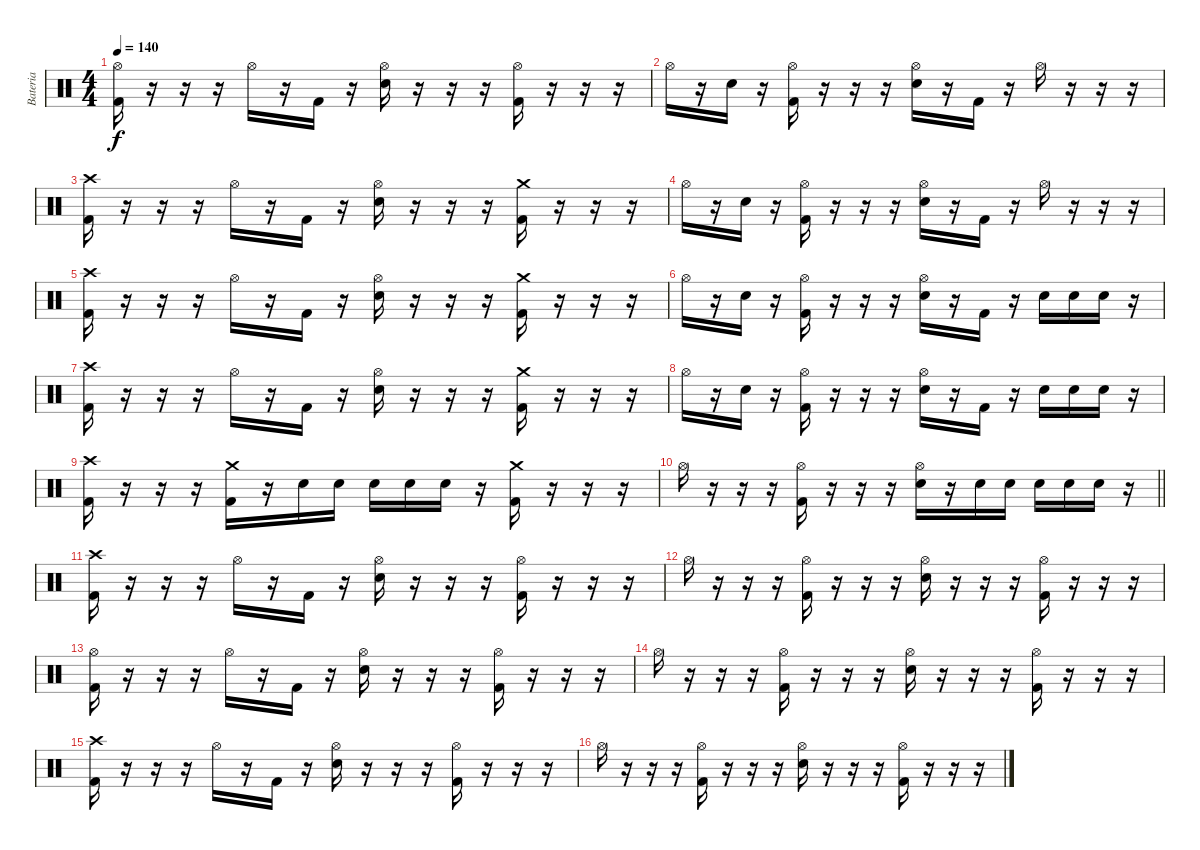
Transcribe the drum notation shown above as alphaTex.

\track ("Bateria" "Bateria") {instrument percussion}
\staff {score}
\articulation defaults
\ts (4 4)
\tempo 140
\clef neutral
\ks c
("Hi-Hat (open)" "Kick (hit) 2").16{dy f} r.16 r.16 r.16 "Hi-Hat (open)".16 r.16 "Kick (hit) 2".16 r.16 ("Hi-Hat (open)" "Snare (hit) 2").16 r.16 r.16 r.16 ("Hi-Hat (open)" "Kick (hit) 2").16 r.16 r.16 r.16 |
"Hi-Hat (open)".16 r.16 "Snare (hit) 2".16 r.16 ("Hi-Hat (open)" "Kick (hit) 2").16 r.16 r.16 r.16 ("Hi-Hat (open)" "Snare (hit) 2").16 r.16 "Kick (hit) 2".16 r.16 "Hi-Hat (open)".16 r.16 r.16 r.16 |
("Crash high (hit)" "Kick (hit) 2").16 r.16 r.16 r.16 "Hi-Hat (open)".16 r.16 "Kick (hit) 2".16 r.16 ("Hi-Hat (open)" "Snare (hit) 2").16 r.16 r.16 r.16 ("Crash medium (hit)" "Kick (hit) 2").16 r.16 r.16 r.16 |
"Hi-Hat (open)".16 r.16 "Snare (hit) 2".16 r.16 ("Hi-Hat (open)" "Kick (hit) 2").16 r.16 r.16 r.16 ("Hi-Hat (open)" "Snare (hit) 2").16 r.16 "Kick (hit) 2".16 r.16 "Hi-Hat (open)".16 r.16 r.16 r.16 |
("Crash high (hit)" "Kick (hit) 2").16 r.16 r.16 r.16 "Hi-Hat (open)".16 r.16 "Kick (hit) 2".16 r.16 ("Hi-Hat (open)" "Snare (hit) 2").16 r.16 r.16 r.16 ("Crash medium (hit)" "Kick (hit) 2").16 r.16 r.16 r.16 |
"Hi-Hat (open)".16 r.16 "Snare (hit) 2".16 r.16 ("Hi-Hat (open)" "Kick (hit) 2").16 r.16 r.16 r.16 ("Hi-Hat (open)" "Snare (hit) 2").16 r.16 "Kick (hit) 2".16 r.16 "Snare (hit) 2".16 "Snare (hit) 2".16 "Snare (hit) 2".16 r.16 |
("Crash high (hit)" "Kick (hit) 2").16 r.16 r.16 r.16 "Hi-Hat (open)".16 r.16 "Kick (hit) 2".16 r.16 ("Hi-Hat (open)" "Snare (hit) 2").16 r.16 r.16 r.16 ("Crash medium (hit)" "Kick (hit) 2").16 r.16 r.16 r.16 |
"Hi-Hat (open)".16 r.16 "Snare (hit) 2".16 r.16 ("Hi-Hat (open)" "Kick (hit) 2").16 r.16 r.16 r.16 ("Hi-Hat (open)" "Snare (hit) 2").16 r.16 "Kick (hit) 2".16 r.16 "Snare (hit) 2".16 "Snare (hit) 2".16 "Snare (hit) 2".16 r.16 |
("Crash high (hit)" "Kick (hit) 2").16 r.16 r.16 r.16 ("Crash medium (hit)" "Kick (hit) 2").16 r.16 "Snare (hit) 2".16 "Snare (hit) 2".16 "Snare (hit) 2".16 "Snare (hit) 2".16 "Snare (hit) 2".16 r.16 ("Crash medium (hit)" "Kick (hit) 2").16 r.16 r.16 r.16 |
\barLineRight lightlight "Hi-Hat (open)".16
r.16 r.16 r.16 ("Hi-Hat (open)" "Kick (hit) 2").16 r.16 r.16 r.16 ("Hi-Hat (open)" "Snare (hit) 2").16 r.16 "Snare (hit) 2".16 "Snare (hit) 2".16 "Snare (hit) 2".16 "Snare (hit) 2".16 "Snare (hit) 2".16 r.16 |
("Crash high (hit)" "Kick (hit) 2").16 r.16 r.16 r.16 "Hi-Hat (open)".16 r.16 "Kick (hit) 2".16 r.16 ("Hi-Hat (open)" "Snare (hit) 2").16 r.16 r.16 r.16 ("Hi-Hat (open)" "Kick (hit) 2").16 r.16 r.16 r.16 |
"Hi-Hat (open)".16 r.16 r.16 r.16 ("Hi-Hat (open)" "Kick (hit) 2").16 r.16 r.16 r.16 ("Hi-Hat (open)" "Snare (hit) 2").16 r.16 r.16 r.16 ("Hi-Hat (open)" "Kick (hit) 2").16 r.16 r.16 r.16 |
("Hi-Hat (open)" "Kick (hit) 2").16 r.16 r.16 r.16 "Hi-Hat (open)".16 r.16 "Kick (hit) 2".16 r.16 ("Hi-Hat (open)" "Snare (hit) 2").16 r.16 r.16 r.16 ("Hi-Hat (open)" "Kick (hit) 2").16 r.16 r.16 r.16 |
"Hi-Hat (open)".16 r.16 r.16 r.16 ("Hi-Hat (open)" "Kick (hit) 2").16 r.16 r.16 r.16 ("Hi-Hat (open)" "Snare (hit) 2").16 r.16 r.16 r.16 ("Hi-Hat (open)" "Kick (hit) 2").16 r.16 r.16 r.16 |
("Crash high (hit)" "Kick (hit) 2").16 r.16 r.16 r.16 "Hi-Hat (open)".16 r.16 "Kick (hit) 2".16 r.16 ("Hi-Hat (open)" "Snare (hit) 2").16 r.16 r.16 r.16 ("Hi-Hat (open)" "Kick (hit) 2").16 r.16 r.16 r.16 |
"Hi-Hat (open)".16 r.16 r.16 r.16 ("Hi-Hat (open)" "Kick (hit) 2").16 r.16 r.16 r.16 ("Hi-Hat (open)" "Snare (hit) 2").16 r.16 r.16 r.16 ("Hi-Hat (open)" "Kick (hit) 2").16 r.16 r.16 r.16
